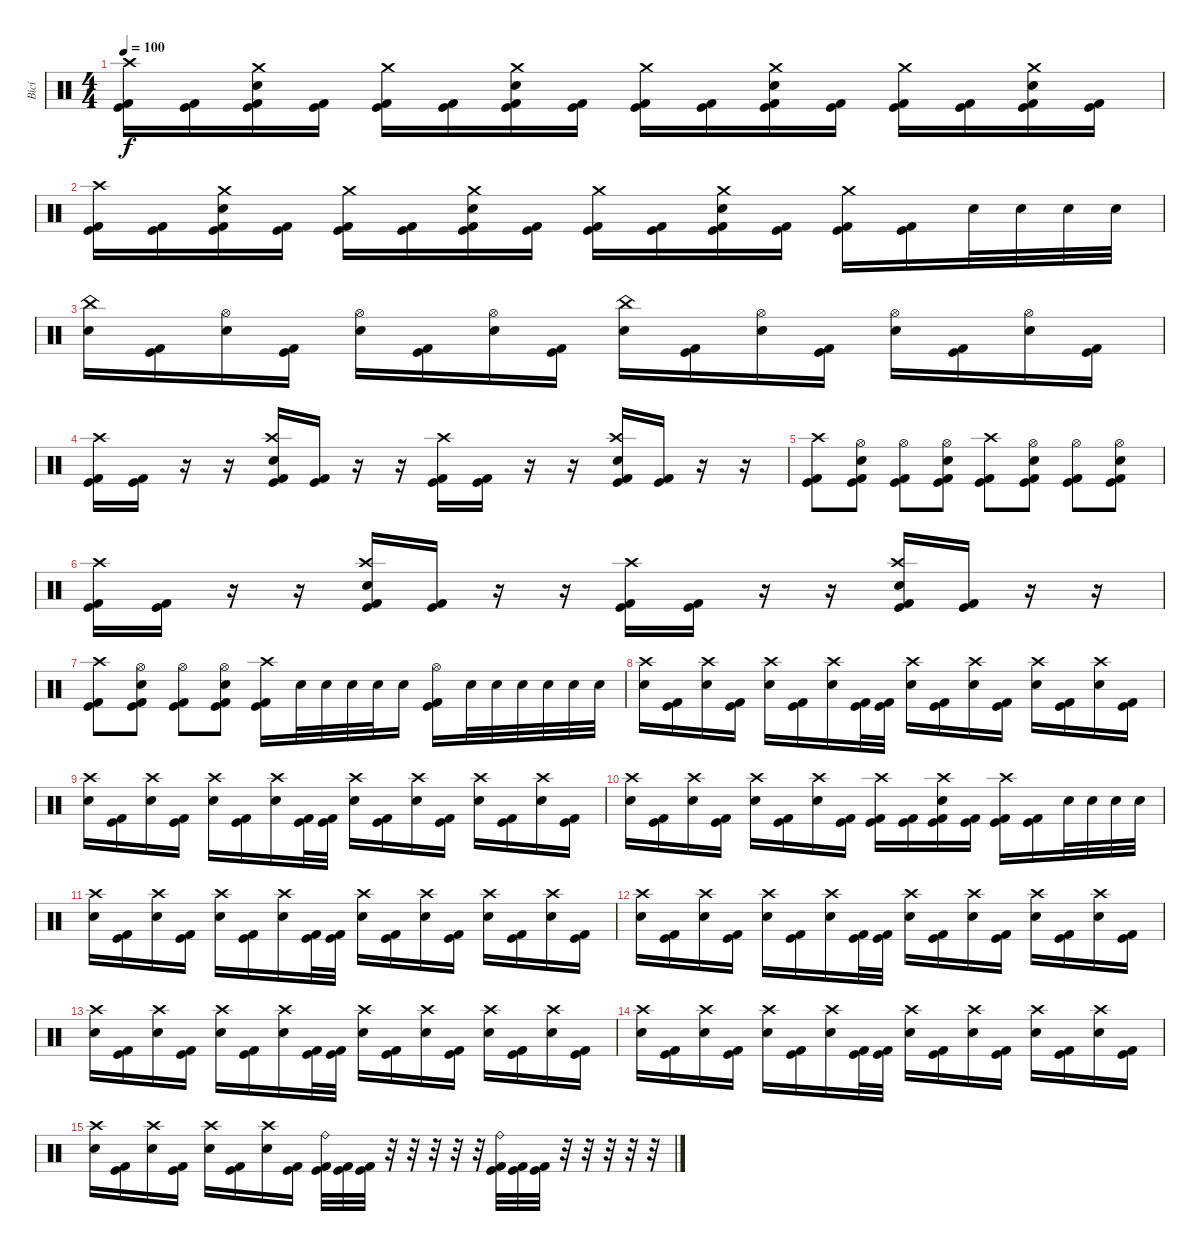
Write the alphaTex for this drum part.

\track ("Bicí" "Bicí") {instrument percussion}
\staff {score}
\articulation defaults
\ts (4 4)
\tempo 100
\clef neutral
\ks c
("Kick (hit) 2" "Kick (hit)" "Crash high (hit)").16{dy f} ("Kick (hit) 2" "Kick (hit)").16 ("Kick (hit) 2" "Kick (hit)" "Electric Snare (hit)" "Crash medium (hit)").16 ("Kick (hit)" "Kick (hit) 2").16 ("Kick (hit) 2" "Kick (hit)" "Crash medium (hit)").16 ("Kick (hit) 2" "Kick (hit)").16 ("Kick (hit) 2" "Kick (hit)" "Electric Snare (hit)" "Crash medium (hit)").16 ("Kick (hit)" "Kick (hit) 2").16 ("Kick (hit) 2" "Kick (hit)" "Crash medium (hit)").16 ("Kick (hit) 2" "Kick (hit)").16 ("Kick (hit) 2" "Kick (hit)" "Electric Snare (hit)" "Crash medium (hit)").16 ("Kick (hit)" "Kick (hit) 2").16 ("Kick (hit) 2" "Kick (hit)" "Crash medium (hit)").16 ("Kick (hit) 2" "Kick (hit)").16 ("Kick (hit) 2" "Kick (hit)" "Electric Snare (hit)" "Crash medium (hit)").16 ("Kick (hit)" "Kick (hit) 2").16 |
("Kick (hit) 2" "Kick (hit)" "Crash high (hit)").16 ("Kick (hit) 2" "Kick (hit)").16 ("Kick (hit) 2" "Kick (hit)" "Electric Snare (hit)" "Crash medium (hit)").16 ("Kick (hit)" "Kick (hit) 2").16 ("Kick (hit) 2" "Kick (hit)" "Crash medium (hit)").16 ("Kick (hit) 2" "Kick (hit)").16 ("Kick (hit) 2" "Kick (hit)" "Electric Snare (hit)" "Crash medium (hit)").16 ("Kick (hit)" "Kick (hit) 2").16 ("Kick (hit) 2" "Kick (hit)" "Crash medium (hit)").16 ("Kick (hit) 2" "Kick (hit)").16 ("Kick (hit) 2" "Kick (hit)" "Electric Snare (hit)" "Crash medium (hit)").16 ("Kick (hit)" "Kick (hit) 2").16 ("Kick (hit) 2" "Kick (hit)" "Crash medium (hit)").16 ("Kick (hit) 2" "Kick (hit)").16 "Electric Snare (hit)".32 "Electric Snare (hit)".32 "Electric Snare (hit)".32 "Electric Snare (hit)".32 |
("Electric Snare (hit)" "China (hit)").16 ("Kick (hit) 2" "Kick (hit)").16 ("Hi-Hat (open)" "Electric Snare (hit)").16 ("Kick (hit) 2" "Kick (hit)").16 ("Hi-Hat (open)" "Electric Snare (hit)").16 ("Kick (hit) 2" "Kick (hit)").16 ("Hi-Hat (open)" "Electric Snare (hit)").16 ("Kick (hit) 2" "Kick (hit)").16 ("China (hit)" "Electric Snare (hit)").16 ("Kick (hit) 2" "Kick (hit)").16 ("Hi-Hat (open)" "Electric Snare (hit)").16 ("Kick (hit) 2" "Kick (hit)").16 ("Hi-Hat (open)" "Electric Snare (hit)").16 ("Kick (hit) 2" "Kick (hit)").16 ("Hi-Hat (open)" "Electric Snare (hit)").16 ("Kick (hit) 2" "Kick (hit)").16 |
("Kick (hit) 2" "Kick (hit)" "Crash high (hit)").16 ("Kick (hit) 2" "Kick (hit)").16 r.16 r.16 ("Kick (hit) 2" "Kick (hit)" "Crash high (hit)" "Electric Snare (hit)").16 ("Kick (hit) 2" "Kick (hit)").16 r.16 r.16 ("Kick (hit) 2" "Kick (hit)" "Crash high (hit)").16 ("Kick (hit) 2" "Kick (hit)").16 r.16 r.16 ("Kick (hit) 2" "Kick (hit)" "Crash high (hit)" "Electric Snare (hit)").16 ("Kick (hit) 2" "Kick (hit)").16 r.16 r.16 |
("Crash high (hit)" "Kick (hit) 2" "Kick (hit)").8 ("Hi-Hat (open)" "Kick (hit)" "Kick (hit) 2" "Electric Snare (hit)").8 ("Hi-Hat (open)" "Kick (hit) 2" "Kick (hit)").8 ("Hi-Hat (open)" "Kick (hit) 2" "Kick (hit)" "Electric Snare (hit)").8 ("Crash high (hit)" "Kick (hit) 2" "Kick (hit)").8 ("Hi-Hat (open)" "Kick (hit)" "Kick (hit) 2" "Electric Snare (hit)").8 ("Hi-Hat (open)" "Kick (hit) 2" "Kick (hit)").8 ("Hi-Hat (open)" "Kick (hit) 2" "Kick (hit)" "Electric Snare (hit)").8 |
("Kick (hit) 2" "Kick (hit)" "Crash high (hit)").16 ("Kick (hit) 2" "Kick (hit)").16 r.16 r.16 ("Kick (hit) 2" "Kick (hit)" "Crash high (hit)" "Electric Snare (hit)").16 ("Kick (hit) 2" "Kick (hit)").16 r.16 r.16 ("Kick (hit) 2" "Kick (hit)" "Crash high (hit)").16 ("Kick (hit) 2" "Kick (hit)").16 r.16 r.16 ("Kick (hit) 2" "Kick (hit)" "Crash high (hit)" "Electric Snare (hit)").16 ("Kick (hit) 2" "Kick (hit)").16 r.16 r.16 |
("Crash high (hit)" "Kick (hit) 2" "Kick (hit)").8 ("Hi-Hat (open)" "Kick (hit)" "Kick (hit) 2" "Electric Snare (hit)").8 ("Hi-Hat (open)" "Kick (hit) 2" "Kick (hit)").8 ("Hi-Hat (open)" "Kick (hit) 2" "Kick (hit)" "Electric Snare (hit)").8 ("Crash high (hit)" "Kick (hit) 2" "Kick (hit)").16 "Electric Snare (hit)".32 "Electric Snare (hit)".32 "Electric Snare (hit)".32 "Electric Snare (hit)".32 "Electric Snare (hit)".16 ("Hi-Hat (open)" "Kick (hit) 2" "Kick (hit)").16 "Electric Snare (hit)".32 "Electric Snare (hit)".32 "Electric Snare (hit)".32 "Electric Snare (hit)".32 "Electric Snare (hit)".32 "Electric Snare (hit)".32 |
("Crash high (hit)" "Electric Snare (hit)").16 ("Kick (hit) 2" "Kick (hit)").16 ("Crash high (hit)" "Electric Snare (hit)").16 ("Kick (hit) 2" "Kick (hit)").16 ("Crash high (hit)" "Electric Snare (hit)").16 ("Kick (hit) 2" "Kick (hit)").16 ("Crash high (hit)" "Electric Snare (hit)").16 ("Kick (hit) 2" "Kick (hit)").32 ("Kick (hit) 2" "Kick (hit)").32 ("Crash high (hit)" "Electric Snare (hit)").16 ("Kick (hit) 2" "Kick (hit)").16 ("Crash high (hit)" "Electric Snare (hit)").16 ("Kick (hit) 2" "Kick (hit)").16 ("Crash high (hit)" "Electric Snare (hit)").16 ("Kick (hit) 2" "Kick (hit)").16 ("Crash high (hit)" "Electric Snare (hit)").16 ("Kick (hit) 2" "Kick (hit)").16 |
("Crash high (hit)" "Electric Snare (hit)").16 ("Kick (hit) 2" "Kick (hit)").16 ("Crash high (hit)" "Electric Snare (hit)").16 ("Kick (hit) 2" "Kick (hit)").16 ("Crash high (hit)" "Electric Snare (hit)").16 ("Kick (hit) 2" "Kick (hit)").16 ("Crash high (hit)" "Electric Snare (hit)").16 ("Kick (hit) 2" "Kick (hit)").32 ("Kick (hit) 2" "Kick (hit)").32 ("Crash high (hit)" "Electric Snare (hit)").16 ("Kick (hit) 2" "Kick (hit)").16 ("Crash high (hit)" "Electric Snare (hit)").16 ("Kick (hit) 2" "Kick (hit)").16 ("Crash high (hit)" "Electric Snare (hit)").16 ("Kick (hit) 2" "Kick (hit)").16 ("Crash high (hit)" "Electric Snare (hit)").16 ("Kick (hit) 2" "Kick (hit)").16 |
("Crash high (hit)" "Electric Snare (hit)").16 ("Kick (hit) 2" "Kick (hit)").16 ("Crash high (hit)" "Electric Snare (hit)").16 ("Kick (hit) 2" "Kick (hit)").16 ("Crash high (hit)" "Electric Snare (hit)").16 ("Kick (hit) 2" "Kick (hit)").16 ("Crash high (hit)" "Electric Snare (hit)").16 ("Kick (hit) 2" "Kick (hit)").16 ("Kick (hit) 2" "Kick (hit)" "Crash high (hit)").16 ("Kick (hit) 2" "Kick (hit)").16 ("Kick (hit) 2" "Kick (hit)" "Electric Snare (hit)" "Crash high (hit)").16 ("Kick (hit) 2" "Kick (hit)").16 ("Kick (hit) 2" "Kick (hit)" "Crash high (hit)").16 ("Kick (hit) 2" "Kick (hit)").16 "Electric Snare (hit)".32 "Electric Snare (hit)".32 "Electric Snare (hit)".32 "Electric Snare (hit)".32 |
("Crash high (hit)" "Electric Snare (hit)").16 ("Kick (hit) 2" "Kick (hit)").16 ("Crash high (hit)" "Electric Snare (hit)").16 ("Kick (hit) 2" "Kick (hit)").16 ("Crash high (hit)" "Electric Snare (hit)").16 ("Kick (hit) 2" "Kick (hit)").16 ("Crash high (hit)" "Electric Snare (hit)").16 ("Kick (hit) 2" "Kick (hit)").32 ("Kick (hit) 2" "Kick (hit)").32 ("Crash high (hit)" "Electric Snare (hit)").16 ("Kick (hit) 2" "Kick (hit)").16 ("Crash high (hit)" "Electric Snare (hit)").16 ("Kick (hit) 2" "Kick (hit)").16 ("Crash high (hit)" "Electric Snare (hit)").16 ("Kick (hit) 2" "Kick (hit)").16 ("Crash high (hit)" "Electric Snare (hit)").16 ("Kick (hit) 2" "Kick (hit)").16 |
("Crash high (hit)" "Electric Snare (hit)").16 ("Kick (hit) 2" "Kick (hit)").16 ("Crash high (hit)" "Electric Snare (hit)").16 ("Kick (hit) 2" "Kick (hit)").16 ("Crash high (hit)" "Electric Snare (hit)").16 ("Kick (hit) 2" "Kick (hit)").16 ("Crash high (hit)" "Electric Snare (hit)").16 ("Kick (hit) 2" "Kick (hit)").32 ("Kick (hit) 2" "Kick (hit)").32 ("Crash high (hit)" "Electric Snare (hit)").16 ("Kick (hit) 2" "Kick (hit)").16 ("Crash high (hit)" "Electric Snare (hit)").16 ("Kick (hit) 2" "Kick (hit)").16 ("Crash high (hit)" "Electric Snare (hit)").16 ("Kick (hit) 2" "Kick (hit)").16 ("Crash high (hit)" "Electric Snare (hit)").16 ("Kick (hit) 2" "Kick (hit)").16 |
("Crash high (hit)" "Electric Snare (hit)").16 ("Kick (hit) 2" "Kick (hit)").16 ("Crash high (hit)" "Electric Snare (hit)").16 ("Kick (hit) 2" "Kick (hit)").16 ("Crash high (hit)" "Electric Snare (hit)").16 ("Kick (hit) 2" "Kick (hit)").16 ("Crash high (hit)" "Electric Snare (hit)").16 ("Kick (hit) 2" "Kick (hit)").32 ("Kick (hit) 2" "Kick (hit)").32 ("Crash high (hit)" "Electric Snare (hit)").16 ("Kick (hit) 2" "Kick (hit)").16 ("Crash high (hit)" "Electric Snare (hit)").16 ("Kick (hit) 2" "Kick (hit)").16 ("Crash high (hit)" "Electric Snare (hit)").16 ("Kick (hit) 2" "Kick (hit)").16 ("Crash high (hit)" "Electric Snare (hit)").16 ("Kick (hit) 2" "Kick (hit)").16 |
("Crash high (hit)" "Electric Snare (hit)").16 ("Kick (hit) 2" "Kick (hit)").16 ("Crash high (hit)" "Electric Snare (hit)").16 ("Kick (hit) 2" "Kick (hit)").16 ("Crash high (hit)" "Electric Snare (hit)").16 ("Kick (hit) 2" "Kick (hit)").16 ("Crash high (hit)" "Electric Snare (hit)").16 ("Kick (hit) 2" "Kick (hit)").32 ("Kick (hit) 2" "Kick (hit)").32 ("Crash high (hit)" "Electric Snare (hit)").16 ("Kick (hit) 2" "Kick (hit)").16 ("Crash high (hit)" "Electric Snare (hit)").16 ("Kick (hit) 2" "Kick (hit)").16 ("Crash high (hit)" "Electric Snare (hit)").16 ("Kick (hit) 2" "Kick (hit)").16 ("Crash high (hit)" "Electric Snare (hit)").16 ("Kick (hit) 2" "Kick (hit)").16 |
("Crash high (hit)" "Electric Snare (hit)").16 ("Kick (hit) 2" "Kick (hit)").16 ("Crash high (hit)" "Electric Snare (hit)").16 ("Kick (hit) 2" "Kick (hit)").16 ("Crash high (hit)" "Electric Snare (hit)").16 ("Kick (hit) 2" "Kick (hit)").16 ("Crash high (hit)" "Electric Snare (hit)").16 ("Kick (hit) 2" "Kick (hit)").16 ("Ride (bell)" "Kick (hit)" "Kick (hit) 2").32 ("Kick (hit) 2" "Kick (hit)").32 ("Kick (hit) 2" "Kick (hit)").32 r.32 r.32 r.32 r.32 r.32 ("Ride (bell)" "Kick (hit)" "Kick (hit) 2").32 ("Kick (hit) 2" "Kick (hit)").32 ("Kick (hit) 2" "Kick (hit)").32 r.32 r.32 r.32 r.32 r.32
